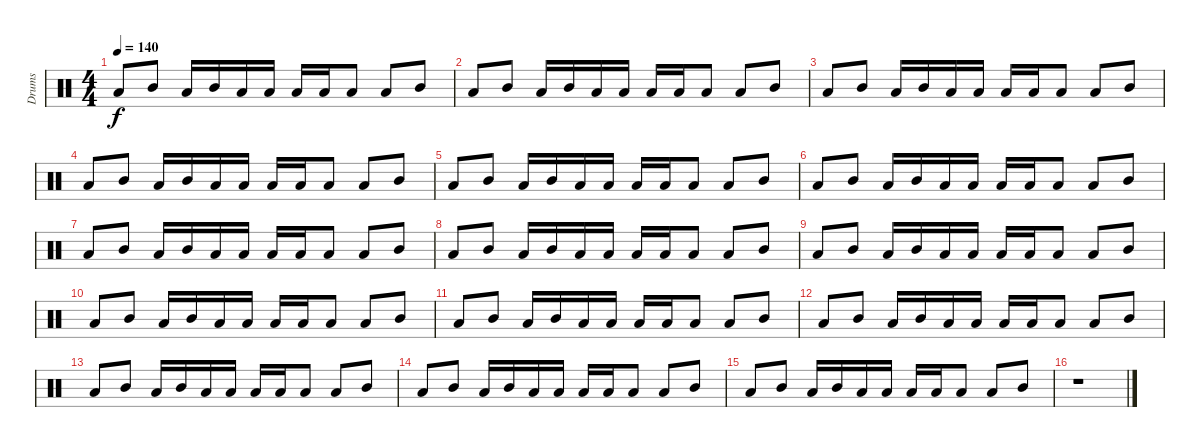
\track ("Drums" "Drums") {instrument percussion}
\staff {score}
\articulation defaults
\ts (4 4)
\tempo 140
\clef neutral
\ks c "Low Tom (hit)".8{dy f} "Mid Tom (hit)".8 "Low Tom (hit)".16 "Mid Tom (hit)".16 "Low Tom (hit)".16 "Low Tom (hit)".16 "Low Tom (hit)".16 "Low Tom (hit)".16 "Low Tom (hit)".8 "Low Tom (hit)".8 "Mid Tom (hit)".8
|
"Low Tom (hit)".8 "Mid Tom (hit)".8 "Low Tom (hit)".16 "Mid Tom (hit)".16 "Low Tom (hit)".16 "Low Tom (hit)".16 "Low Tom (hit)".16 "Low Tom (hit)".16 "Low Tom (hit)".8 "Low Tom (hit)".8 "Mid Tom (hit)".8 |
"Low Tom (hit)".8 "Mid Tom (hit)".8 "Low Tom (hit)".16 "Mid Tom (hit)".16 "Low Tom (hit)".16 "Low Tom (hit)".16 "Low Tom (hit)".16 "Low Tom (hit)".16 "Low Tom (hit)".8 "Low Tom (hit)".8 "Mid Tom (hit)".8 |
"Low Tom (hit)".8 "Mid Tom (hit)".8 "Low Tom (hit)".16 "Mid Tom (hit)".16 "Low Tom (hit)".16 "Low Tom (hit)".16 "Low Tom (hit)".16 "Low Tom (hit)".16 "Low Tom (hit)".8 "Low Tom (hit)".8 "Mid Tom (hit)".8 |
"Low Tom (hit)".8 "Mid Tom (hit)".8 "Low Tom (hit)".16 "Mid Tom (hit)".16 "Low Tom (hit)".16 "Low Tom (hit)".16 "Low Tom (hit)".16 "Low Tom (hit)".16 "Low Tom (hit)".8 "Low Tom (hit)".8 "Mid Tom (hit)".8 |
"Low Tom (hit)".8 "Mid Tom (hit)".8 "Low Tom (hit)".16 "Mid Tom (hit)".16 "Low Tom (hit)".16 "Low Tom (hit)".16 "Low Tom (hit)".16 "Low Tom (hit)".16 "Low Tom (hit)".8 "Low Tom (hit)".8 "Mid Tom (hit)".8 |
"Low Tom (hit)".8 "Mid Tom (hit)".8 "Low Tom (hit)".16 "Mid Tom (hit)".16 "Low Tom (hit)".16 "Low Tom (hit)".16 "Low Tom (hit)".16 "Low Tom (hit)".16 "Low Tom (hit)".8 "Low Tom (hit)".8 "Mid Tom (hit)".8 |
"Low Tom (hit)".8 "Mid Tom (hit)".8 "Low Tom (hit)".16 "Mid Tom (hit)".16 "Low Tom (hit)".16 "Low Tom (hit)".16 "Low Tom (hit)".16 "Low Tom (hit)".16 "Low Tom (hit)".8 "Low Tom (hit)".8 "Mid Tom (hit)".8 |
"Low Tom (hit)".8 "Mid Tom (hit)".8 "Low Tom (hit)".16 "Mid Tom (hit)".16 "Low Tom (hit)".16 "Low Tom (hit)".16 "Low Tom (hit)".16 "Low Tom (hit)".16 "Low Tom (hit)".8 "Low Tom (hit)".8 "Mid Tom (hit)".8 |
"Low Tom (hit)".8 "Mid Tom (hit)".8 "Low Tom (hit)".16 "Mid Tom (hit)".16 "Low Tom (hit)".16 "Low Tom (hit)".16 "Low Tom (hit)".16 "Low Tom (hit)".16 "Low Tom (hit)".8 "Low Tom (hit)".8 "Mid Tom (hit)".8 |
"Low Tom (hit)".8 "Mid Tom (hit)".8 "Low Tom (hit)".16 "Mid Tom (hit)".16 "Low Tom (hit)".16 "Low Tom (hit)".16 "Low Tom (hit)".16 "Low Tom (hit)".16 "Low Tom (hit)".8 "Low Tom (hit)".8 "Mid Tom (hit)".8 |
"Low Tom (hit)".8 "Mid Tom (hit)".8 "Low Tom (hit)".16 "Mid Tom (hit)".16 "Low Tom (hit)".16 "Low Tom (hit)".16 "Low Tom (hit)".16 "Low Tom (hit)".16 "Low Tom (hit)".8 "Low Tom (hit)".8 "Mid Tom (hit)".8 |
"Low Tom (hit)".8 "Mid Tom (hit)".8 "Low Tom (hit)".16 "Mid Tom (hit)".16 "Low Tom (hit)".16 "Low Tom (hit)".16 "Low Tom (hit)".16 "Low Tom (hit)".16 "Low Tom (hit)".8 "Low Tom (hit)".8 "Mid Tom (hit)".8 |
"Low Tom (hit)".8 "Mid Tom (hit)".8 "Low Tom (hit)".16 "Mid Tom (hit)".16 "Low Tom (hit)".16 "Low Tom (hit)".16 "Low Tom (hit)".16 "Low Tom (hit)".16 "Low Tom (hit)".8 "Low Tom (hit)".8 "Mid Tom (hit)".8 |
"Low Tom (hit)".8 "Mid Tom (hit)".8 "Low Tom (hit)".16 "Mid Tom (hit)".16 "Low Tom (hit)".16 "Low Tom (hit)".16 "Low Tom (hit)".16 "Low Tom (hit)".16 "Low Tom (hit)".8 "Low Tom (hit)".8 "Mid Tom (hit)".8 |
r.1
